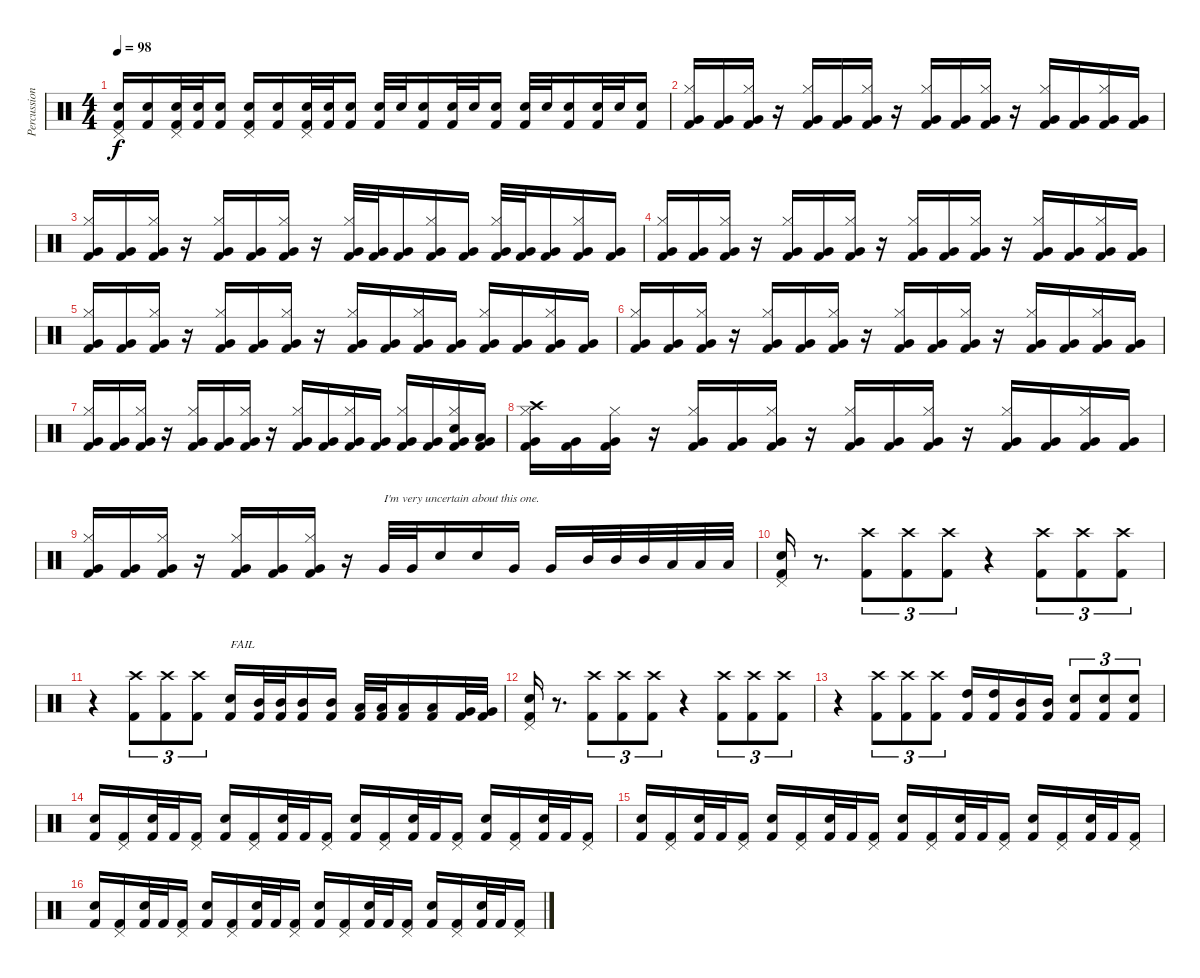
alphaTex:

\track ("Percussion" "Percussion") {instrument percussion}
\staff {score}
\articulation defaults
\ts (4 4)
\tempo 98
\clef neutral
\ks c
("Pedal Hi-Hat (hit)" "Snare (hit) 2" "Kick (hit) 2").16{dy f} ("Snare (hit) 2" "Kick (hit) 2").16 ("Pedal Hi-Hat (hit)" "Snare (hit) 2" "Kick (hit) 2").32 ("Snare (hit) 2" "Kick (hit) 2").32 ("Snare (hit) 2" "Kick (hit) 2").16 ("Pedal Hi-Hat (hit)" "Snare (hit) 2" "Kick (hit) 2").16 ("Snare (hit) 2" "Kick (hit) 2").16 ("Pedal Hi-Hat (hit)" "Snare (hit) 2" "Kick (hit) 2").32 ("Snare (hit) 2" "Kick (hit) 2").32 ("Snare (hit) 2" "Kick (hit) 2").16 ("Snare (hit) 2" "Kick (hit) 2").32 "Snare (hit) 2".32 ("Snare (hit) 2" "Kick (hit) 2").16 ("Snare (hit) 2" "Kick (hit) 2").32 "Snare (hit) 2".32 ("Snare (hit) 2" "Kick (hit) 2").16 ("Snare (hit) 2" "Kick (hit) 2").32 "Snare (hit) 2".32 ("Snare (hit) 2" "Kick (hit) 2").16 ("Snare (hit) 2" "Kick (hit) 2").32 "Snare (hit) 2".32 ("Snare (hit) 2" "Kick (hit) 2").16 |
("Hi-Hat (closed)" "Very Low Tom (hit)" "Kick (hit) 2").16 ("Very Low Tom (hit)" "Kick (hit) 2").16 ("Hi-Hat (closed)" "Very Low Tom (hit)" "Kick (hit) 2").16 r.16 ("Hi-Hat (closed)" "Very Low Tom (hit)" "Kick (hit) 2").16 ("Very Low Tom (hit)" "Kick (hit) 2").16 ("Hi-Hat (closed)" "Very Low Tom (hit)" "Kick (hit) 2").16 r.16 ("Hi-Hat (closed)" "Very Low Tom (hit)" "Kick (hit) 2").16 ("Very Low Tom (hit)" "Kick (hit) 2").16 ("Hi-Hat (closed)" "Very Low Tom (hit)" "Kick (hit) 2").16 r.16 ("Hi-Hat (closed)" "Very Low Tom (hit)" "Kick (hit) 2").16 ("Very Low Tom (hit)" "Kick (hit) 2").16 ("Hi-Hat (closed)" "Very Low Tom (hit)" "Kick (hit) 2").16 ("Very Low Tom (hit)" "Kick (hit) 2").16 |
("Hi-Hat (closed)" "Very Low Tom (hit)" "Kick (hit) 2").16 ("Very Low Tom (hit)" "Kick (hit) 2").16 ("Hi-Hat (closed)" "Very Low Tom (hit)" "Kick (hit) 2").16 r.16 ("Hi-Hat (closed)" "Very Low Tom (hit)" "Kick (hit) 2").16 ("Very Low Tom (hit)" "Kick (hit) 2").16 ("Hi-Hat (closed)" "Very Low Tom (hit)" "Kick (hit) 2").16 r.16 ("Hi-Hat (closed)" "Very Low Tom (hit)" "Kick (hit) 2").32 ("Very Low Tom (hit)" "Kick (hit) 2").32 ("Very Low Tom (hit)" "Kick (hit) 2").16 ("Hi-Hat (closed)" "Very Low Tom (hit)" "Kick (hit) 2").16 ("Very Low Tom (hit)" "Kick (hit) 2").16 ("Hi-Hat (closed)" "Very Low Tom (hit)" "Kick (hit) 2").32 ("Very Low Tom (hit)" "Kick (hit) 2").32 ("Very Low Tom (hit)" "Kick (hit) 2").16 ("Hi-Hat (closed)" "Very Low Tom (hit)" "Kick (hit) 2").16 ("Very Low Tom (hit)" "Kick (hit) 2").16 |
("Hi-Hat (closed)" "Very Low Tom (hit)" "Kick (hit) 2").16 ("Very Low Tom (hit)" "Kick (hit) 2").16 ("Hi-Hat (closed)" "Very Low Tom (hit)" "Kick (hit) 2").16 r.16 ("Hi-Hat (closed)" "Very Low Tom (hit)" "Kick (hit) 2").16 ("Very Low Tom (hit)" "Kick (hit) 2").16 ("Hi-Hat (closed)" "Very Low Tom (hit)" "Kick (hit) 2").16 r.16 ("Hi-Hat (closed)" "Very Low Tom (hit)" "Kick (hit) 2").16 ("Very Low Tom (hit)" "Kick (hit) 2").16 ("Hi-Hat (closed)" "Very Low Tom (hit)" "Kick (hit) 2").16 r.16 ("Hi-Hat (closed)" "Very Low Tom (hit)" "Kick (hit) 2").16 ("Very Low Tom (hit)" "Kick (hit) 2").16 ("Hi-Hat (closed)" "Very Low Tom (hit)" "Kick (hit) 2").16 ("Very Low Tom (hit)" "Kick (hit) 2").16 |
("Hi-Hat (closed)" "Very Low Tom (hit)" "Kick (hit) 2").16 ("Very Low Tom (hit)" "Kick (hit) 2").16 ("Hi-Hat (closed)" "Very Low Tom (hit)" "Kick (hit) 2").16 r.16 ("Hi-Hat (closed)" "Very Low Tom (hit)" "Kick (hit) 2").16 ("Very Low Tom (hit)" "Kick (hit) 2").16 ("Hi-Hat (closed)" "Very Low Tom (hit)" "Kick (hit) 2").16 r.16 ("Hi-Hat (closed)" "Very Low Tom (hit)" "Kick (hit) 2").16 ("Very Low Tom (hit)" "Kick (hit) 2").16 ("Hi-Hat (closed)" "Very Low Tom (hit)" "Kick (hit) 2").16 ("Very Low Tom (hit)" "Kick (hit) 2").16 ("Hi-Hat (closed)" "Very Low Tom (hit)" "Kick (hit) 2").16 ("Very Low Tom (hit)" "Kick (hit) 2").16 ("Hi-Hat (closed)" "Very Low Tom (hit)" "Kick (hit) 2").16 ("Very Low Tom (hit)" "Kick (hit) 2").16 |
("Hi-Hat (closed)" "Very Low Tom (hit)" "Kick (hit) 2").16 ("Very Low Tom (hit)" "Kick (hit) 2").16 ("Hi-Hat (closed)" "Very Low Tom (hit)" "Kick (hit) 2").16 r.16 ("Hi-Hat (closed)" "Very Low Tom (hit)" "Kick (hit) 2").16 ("Very Low Tom (hit)" "Kick (hit) 2").16 ("Hi-Hat (closed)" "Very Low Tom (hit)" "Kick (hit) 2").16 r.16 ("Hi-Hat (closed)" "Very Low Tom (hit)" "Kick (hit) 2").16 ("Very Low Tom (hit)" "Kick (hit) 2").16 ("Hi-Hat (closed)" "Very Low Tom (hit)" "Kick (hit) 2").16 r.16 ("Hi-Hat (closed)" "Very Low Tom (hit)" "Kick (hit) 2").16 ("Very Low Tom (hit)" "Kick (hit) 2").16 ("Hi-Hat (closed)" "Very Low Tom (hit)" "Kick (hit) 2").16 ("Very Low Tom (hit)" "Kick (hit) 2").16 |
("Hi-Hat (closed)" "Very Low Tom (hit)" "Kick (hit) 2").16 ("Very Low Tom (hit)" "Kick (hit) 2").16 ("Hi-Hat (closed)" "Very Low Tom (hit)" "Kick (hit) 2").16 r.16 ("Hi-Hat (closed)" "Very Low Tom (hit)" "Kick (hit) 2").16 ("Very Low Tom (hit)" "Kick (hit) 2").16 ("Hi-Hat (closed)" "Very Low Tom (hit)" "Kick (hit) 2").16 r.16 ("Hi-Hat (closed)" "Very Low Tom (hit)" "Kick (hit) 2").16 ("Very Low Tom (hit)" "Kick (hit) 2").16 ("Hi-Hat (closed)" "Very Low Tom (hit)" "Kick (hit) 2").16 ("Very Low Tom (hit)" "Kick (hit) 2").16 ("Hi-Hat (closed)" "Very Low Tom (hit)" "Kick (hit) 2").16 ("Very Low Tom (hit)" "Kick (hit) 2").16 ("Hi-Hat (closed)" "Snare (hit) 2" "Very Low Tom (hit)" "Kick (hit) 2").16 ("Low Tom (hit)" "Very Low Tom (hit)" "Kick (hit) 2").16 |
("Hi-Hat (closed)" "Crash high (hit)" "Very Low Tom (hit)" "Kick (hit) 2").16 ("Very Low Tom (hit)" "Kick (hit) 2").16 ("Hi-Hat (closed)" "Very Low Tom (hit)" "Kick (hit) 2").16 r.16 ("Hi-Hat (closed)" "Very Low Tom (hit)" "Kick (hit) 2").16 ("Very Low Tom (hit)" "Kick (hit) 2").16 ("Hi-Hat (closed)" "Very Low Tom (hit)" "Kick (hit) 2").16 r.16 ("Hi-Hat (closed)" "Very Low Tom (hit)" "Kick (hit) 2").16 ("Very Low Tom (hit)" "Kick (hit) 2").16 ("Hi-Hat (closed)" "Very Low Tom (hit)" "Kick (hit) 2").16 r.16 ("Hi-Hat (closed)" "Very Low Tom (hit)" "Kick (hit) 2").16 ("Very Low Tom (hit)" "Kick (hit) 2").16 ("Hi-Hat (closed)" "Very Low Tom (hit)" "Kick (hit) 2").16 ("Very Low Tom (hit)" "Kick (hit) 2").16 |
("Hi-Hat (closed)" "Very Low Tom (hit)" "Kick (hit) 2").16 ("Very Low Tom (hit)" "Kick (hit) 2").16 ("Hi-Hat (closed)" "Very Low Tom (hit)" "Kick (hit) 2").16 r.16 ("Hi-Hat (closed)" "Very Low Tom (hit)" "Kick (hit) 2").16 ("Very Low Tom (hit)" "Kick (hit) 2").16 ("Hi-Hat (closed)" "Very Low Tom (hit)" "Kick (hit) 2").16 r.16 "Very Low Tom (hit)".32{txt "I'm very uncertain about this one."} "Very Low Tom (hit)".32 "Snare (hit) 2".16 "Snare (hit) 2".16 "Very Low Tom (hit)".16 "Very Low Tom (hit)".16 "Mid Tom (hit)".32 "Mid Tom (hit)".32 "Mid Tom (hit)".32 "Low Tom (hit)".32 "Low Tom (hit)".32 "Low Tom (hit)".32 |
("Pedal Hi-Hat (hit)" "Snare (hit) 2" "Kick (hit) 2").16 r.8{d} ("Crash high (hit)" "Kick (hit) 2").8{tu (3 2)} ("Crash high (hit)" "Kick (hit) 2").8{tu (3 2)} ("Crash high (hit)" "Kick (hit) 2").8{tu (3 2)} r.4 ("Crash high (hit)" "Kick (hit) 2").8{tu (3 2)} ("Crash high (hit)" "Kick (hit) 2").8{tu (3 2)} ("Crash high (hit)" "Kick (hit) 2").8{tu (3 2)} |
r.4 ("Crash high (hit)" "Kick (hit) 2").8{tu (3 2)} ("Crash high (hit)" "Kick (hit) 2").8{tu (3 2)} ("Crash high (hit)" "Kick (hit) 2").8{tu (3 2)} ("Snare (hit) 2" "Kick (hit) 2").16{txt "FAIL"} ("Mid Tom (hit)" "Kick (hit) 2").32 ("Mid Tom (hit)" "Kick (hit) 2").32 ("Mid Tom (hit)" "Kick (hit) 2").16 ("Mid Tom (hit)" "Kick (hit) 2").16 ("Low Tom (hit)" "Kick (hit) 2").32 ("Low Tom (hit)" "Kick (hit) 2").32 ("Low Tom (hit)" "Kick (hit) 2").16 ("Low Tom (hit)" "Kick (hit) 2").16 ("Very Low Tom (hit)" "Kick (hit) 2").32 ("Very Low Tom (hit)" "Kick (hit) 2").32 |
("Pedal Hi-Hat (hit)" "Snare (hit) 2" "Kick (hit) 2").16 r.8{d} ("Crash high (hit)" "Kick (hit) 2").8{tu (3 2)} ("Crash high (hit)" "Kick (hit) 2").8{tu (3 2)} ("Crash high (hit)" "Kick (hit) 2").8{tu (3 2)} r.4 ("Crash high (hit)" "Kick (hit) 2").8{tu (3 2)} ("Crash high (hit)" "Kick (hit) 2").8{tu (3 2)} ("Crash high (hit)" "Kick (hit) 2").8{tu (3 2)} |
r.4 ("Crash high (hit)" "Kick (hit) 2").8{tu (3 2)} ("Crash high (hit)" "Kick (hit) 2").8{tu (3 2)} ("Crash high (hit)" "Kick (hit) 2").8{tu (3 2)} ("High Tom (hit)" "Kick (hit) 2").16 ("High Tom (hit)" "Kick (hit) 2").16 ("Mid Tom (hit)" "Kick (hit) 2").16 ("Mid Tom (hit)" "Kick (hit) 2").16 ("Snare (hit) 2" "Kick (hit) 2").8{tu (3 2)} ("Snare (hit) 2" "Kick (hit) 2").8{tu (3 2)} ("Snare (hit) 2" "Kick (hit) 2").8{tu (3 2)} |
("Snare (hit) 2" "Kick (hit) 2").16 ("Pedal Hi-Hat (hit)" "Kick (hit) 2").16 ("Snare (hit) 2" "Kick (hit) 2").32 "Kick (hit) 2".32 ("Pedal Hi-Hat (hit)" "Kick (hit) 2").16 ("Snare (hit) 2" "Kick (hit) 2").16 ("Pedal Hi-Hat (hit)" "Kick (hit) 2").16 ("Snare (hit) 2" "Kick (hit) 2").32 "Kick (hit) 2".32 ("Pedal Hi-Hat (hit)" "Kick (hit) 2").16 ("Snare (hit) 2" "Kick (hit) 2").16 ("Pedal Hi-Hat (hit)" "Kick (hit) 2").16 ("Snare (hit) 2" "Kick (hit) 2").32 "Kick (hit) 2".32 ("Pedal Hi-Hat (hit)" "Kick (hit) 2").16 ("Snare (hit) 2" "Kick (hit) 2").16 ("Pedal Hi-Hat (hit)" "Kick (hit) 2").16 ("Snare (hit) 2" "Kick (hit) 2").32 "Kick (hit) 2".32 ("Pedal Hi-Hat (hit)" "Kick (hit) 2").16 |
("Snare (hit) 2" "Kick (hit) 2").16 ("Pedal Hi-Hat (hit)" "Kick (hit) 2").16 ("Snare (hit) 2" "Kick (hit) 2").32 "Kick (hit) 2".32 ("Pedal Hi-Hat (hit)" "Kick (hit) 2").16 ("Snare (hit) 2" "Kick (hit) 2").16 ("Pedal Hi-Hat (hit)" "Kick (hit) 2").16 ("Snare (hit) 2" "Kick (hit) 2").32 "Kick (hit) 2".32 ("Pedal Hi-Hat (hit)" "Kick (hit) 2").16 ("Snare (hit) 2" "Kick (hit) 2").16 ("Pedal Hi-Hat (hit)" "Kick (hit) 2").16 ("Snare (hit) 2" "Kick (hit) 2").32 "Kick (hit) 2".32 ("Pedal Hi-Hat (hit)" "Kick (hit) 2").16 ("Snare (hit) 2" "Kick (hit) 2").16 ("Pedal Hi-Hat (hit)" "Kick (hit) 2").16 ("Snare (hit) 2" "Kick (hit) 2").32 "Kick (hit) 2".32 ("Pedal Hi-Hat (hit)" "Kick (hit) 2").16 |
("Snare (hit) 2" "Kick (hit) 2").16 ("Pedal Hi-Hat (hit)" "Kick (hit) 2").16 ("Snare (hit) 2" "Kick (hit) 2").32 "Kick (hit) 2".32 ("Pedal Hi-Hat (hit)" "Kick (hit) 2").16 ("Snare (hit) 2" "Kick (hit) 2").16 ("Pedal Hi-Hat (hit)" "Kick (hit) 2").16 ("Snare (hit) 2" "Kick (hit) 2").32 "Kick (hit) 2".32 ("Pedal Hi-Hat (hit)" "Kick (hit) 2").16 ("Snare (hit) 2" "Kick (hit) 2").16 ("Pedal Hi-Hat (hit)" "Kick (hit) 2").16 ("Snare (hit) 2" "Kick (hit) 2").32 "Kick (hit) 2".32 ("Pedal Hi-Hat (hit)" "Kick (hit) 2").16 ("Snare (hit) 2" "Kick (hit) 2").16 ("Pedal Hi-Hat (hit)" "Kick (hit) 2").16 ("Snare (hit) 2" "Kick (hit) 2").32 "Kick (hit) 2".32 ("Pedal Hi-Hat (hit)" "Kick (hit) 2").16
